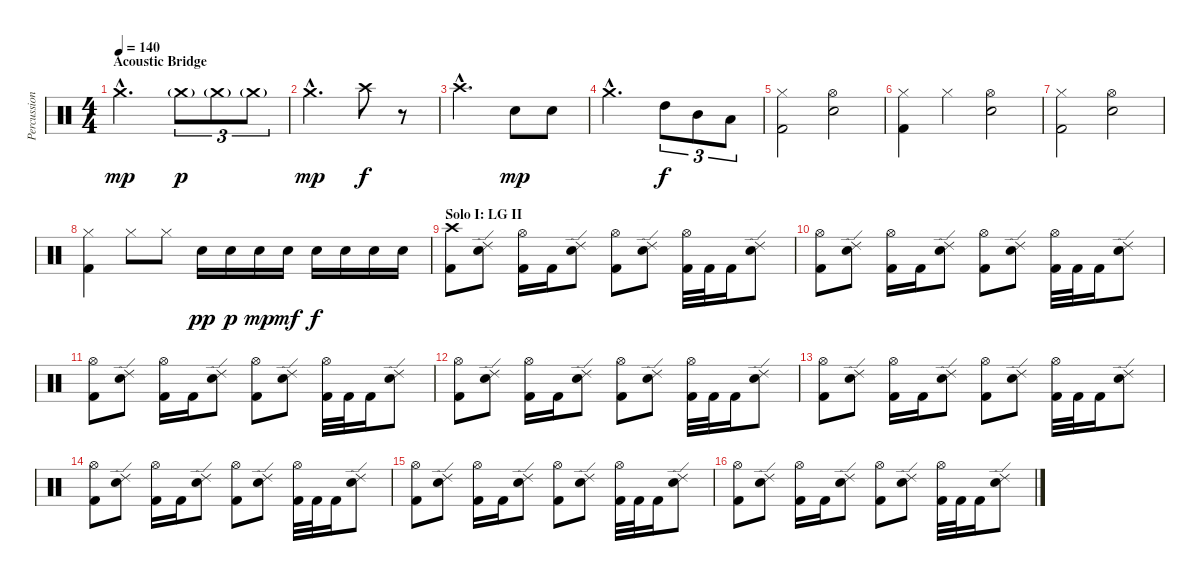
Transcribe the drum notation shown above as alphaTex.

\track ("Percussion" "Percussion") {instrument percussion}
\staff {score}
\articulation defaults
\ts (4 4)
\section ("" "Acoustic Bridge")
\tempo 140
\clef neutral
\ks c "Crash medium (hit)"{hac}.2{d dy mp} "Crash medium (hit)"{g}.8{tu (3 2) dy p} "Crash medium (hit)"{g}.8{tu (3 2)} "Crash medium (hit)"{g}.8{tu (3 2)}
|
"Crash medium (hit)"{hac}.2{d dy mp} "Crash high (hit)".8{dy f volume 10} r.8 |
"Crash high (hit)"{hac}.2{d volume 16} "Electric Snare (hit)".8{dy mp} "Electric Snare (hit)".8 |
"Crash medium (hit)"{hac}.2{d} "High Tom (hit)".8{tu (3 2) dy f} "Mid Tom (hit)".8{tu (3 2)} "Low Tom (hit)".8{tu (3 2)} |
("Hi-Hat (closed)" "Kick (hit) 2").2 ("Hi-Hat (open)" "Electric Snare (hit)").2 |
("Hi-Hat (closed)" "Kick (hit) 2").4 "Hi-Hat (closed)".4 ("Hi-Hat (open)" "Electric Snare (hit)").2 |
("Hi-Hat (closed)" "Kick (hit) 2").2 ("Hi-Hat (open)" "Electric Snare (hit)").2 |
("Hi-Hat (closed)" "Kick (hit) 2").4 "Hi-Hat (closed)".8 "Hi-Hat (closed)".8 "Electric Snare (hit)".16{dy pp} "Electric Snare (hit)".16{dy p} "Electric Snare (hit)".16{dy mp} "Electric Snare (hit)".16{dy mf} "Electric Snare (hit)".16{dy f} "Electric Snare (hit)".16 "Electric Snare (hit)".16 "Electric Snare (hit)".16 |
\section ("" "Solo I: LG II")
("Crash high (hit)" "Kick (hit) 2").8 ("Ride (edge) 2" "Electric Snare (hit)").8 ("Hi-Hat (open)" "Kick (hit) 2").16 "Kick (hit) 2".16 ("Ride (edge) 2" "Electric Snare (hit)").8 ("Hi-Hat (open)" "Kick (hit) 2").8 ("Ride (edge) 2" "Electric Snare (hit)").8 ("Hi-Hat (open)" "Kick (hit) 2").32 "Kick (hit) 2".32 "Kick (hit) 2".16 ("Ride (edge) 2" "Electric Snare (hit)").8 |
("Hi-Hat (open)" "Kick (hit) 2").8 ("Ride (edge) 2" "Electric Snare (hit)").8 ("Hi-Hat (open)" "Kick (hit) 2").16 "Kick (hit) 2".16 ("Ride (edge) 2" "Electric Snare (hit)").8 ("Hi-Hat (open)" "Kick (hit) 2").8 ("Ride (edge) 2" "Electric Snare (hit)").8 ("Hi-Hat (open)" "Kick (hit) 2").32 "Kick (hit) 2".32 "Kick (hit) 2".16 ("Ride (edge) 2" "Electric Snare (hit)").8 |
("Hi-Hat (open)" "Kick (hit) 2").8 ("Ride (edge) 2" "Electric Snare (hit)").8 ("Hi-Hat (open)" "Kick (hit) 2").16 "Kick (hit) 2".16 ("Ride (edge) 2" "Electric Snare (hit)").8 ("Hi-Hat (open)" "Kick (hit) 2").8 ("Ride (edge) 2" "Electric Snare (hit)").8 ("Hi-Hat (open)" "Kick (hit) 2").32 "Kick (hit) 2".32 "Kick (hit) 2".16 ("Ride (edge) 2" "Electric Snare (hit)").8 |
("Hi-Hat (open)" "Kick (hit) 2").8 ("Ride (edge) 2" "Electric Snare (hit)").8 ("Hi-Hat (open)" "Kick (hit) 2").16 "Kick (hit) 2".16 ("Ride (edge) 2" "Electric Snare (hit)").8 ("Hi-Hat (open)" "Kick (hit) 2").8 ("Ride (edge) 2" "Electric Snare (hit)").8 ("Hi-Hat (open)" "Kick (hit) 2").32 "Kick (hit) 2".32 "Kick (hit) 2".16 ("Ride (edge) 2" "Electric Snare (hit)").8 |
("Hi-Hat (open)" "Kick (hit) 2").8 ("Ride (edge) 2" "Electric Snare (hit)").8 ("Hi-Hat (open)" "Kick (hit) 2").16 "Kick (hit) 2".16 ("Ride (edge) 2" "Electric Snare (hit)").8 ("Hi-Hat (open)" "Kick (hit) 2").8 ("Ride (edge) 2" "Electric Snare (hit)").8 ("Hi-Hat (open)" "Kick (hit) 2").32 "Kick (hit) 2".32 "Kick (hit) 2".16 ("Ride (edge) 2" "Electric Snare (hit)").8 |
("Hi-Hat (open)" "Kick (hit) 2").8 ("Ride (edge) 2" "Electric Snare (hit)").8 ("Hi-Hat (open)" "Kick (hit) 2").16 "Kick (hit) 2".16 ("Ride (edge) 2" "Electric Snare (hit)").8 ("Hi-Hat (open)" "Kick (hit) 2").8 ("Ride (edge) 2" "Electric Snare (hit)").8 ("Hi-Hat (open)" "Kick (hit) 2").32 "Kick (hit) 2".32 "Kick (hit) 2".16 ("Ride (edge) 2" "Electric Snare (hit)").8 |
("Hi-Hat (open)" "Kick (hit) 2").8 ("Ride (edge) 2" "Electric Snare (hit)").8 ("Hi-Hat (open)" "Kick (hit) 2").16 "Kick (hit) 2".16 ("Ride (edge) 2" "Electric Snare (hit)").8 ("Hi-Hat (open)" "Kick (hit) 2").8 ("Ride (edge) 2" "Electric Snare (hit)").8 ("Hi-Hat (open)" "Kick (hit) 2").32 "Kick (hit) 2".32 "Kick (hit) 2".16 ("Ride (edge) 2" "Electric Snare (hit)").8 |
("Hi-Hat (open)" "Kick (hit) 2").8 ("Ride (edge) 2" "Electric Snare (hit)").8 ("Hi-Hat (open)" "Kick (hit) 2").16 "Kick (hit) 2".16 ("Ride (edge) 2" "Electric Snare (hit)").8 ("Hi-Hat (open)" "Kick (hit) 2").8 ("Ride (edge) 2" "Electric Snare (hit)").8 ("Hi-Hat (open)" "Kick (hit) 2").32 "Kick (hit) 2".32 "Kick (hit) 2".16 ("Ride (edge) 2" "Electric Snare (hit)").8
